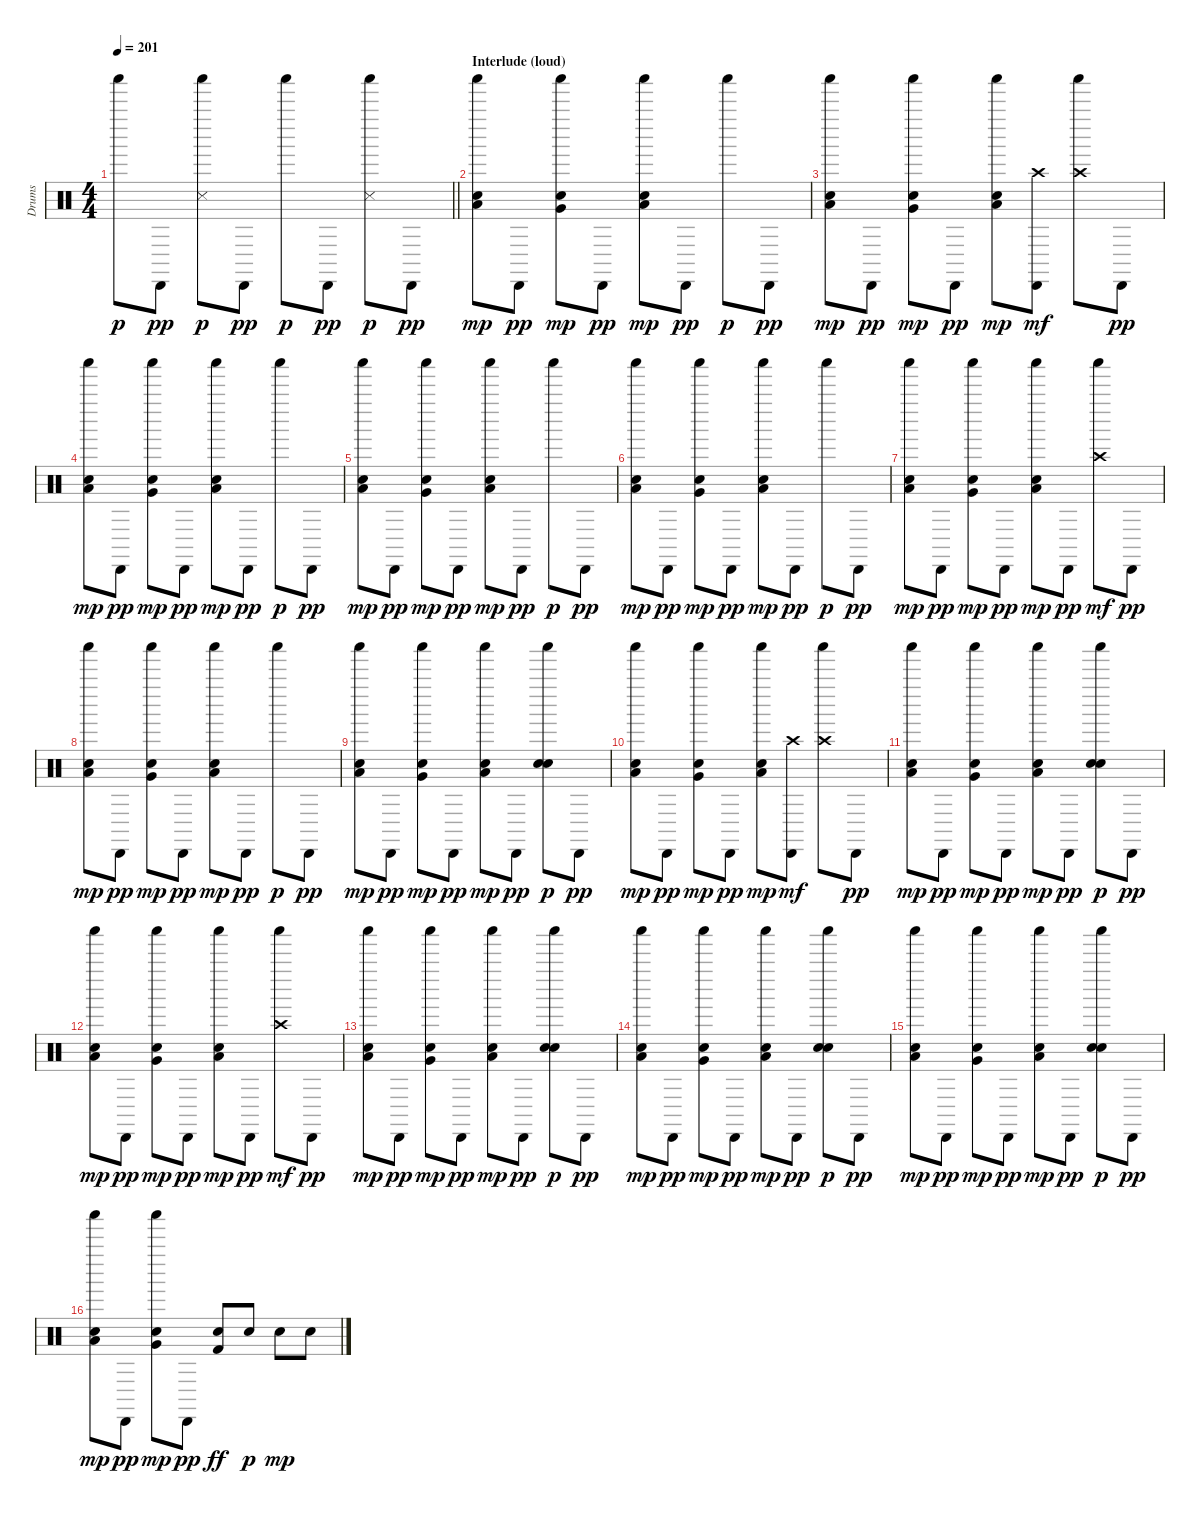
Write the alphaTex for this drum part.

\track ("Drums" "Drums") {instrument percussion}
\staff {score}
\articulation defaults
\ts (4 4)
\tempo 201
\clef neutral
\barLineRight lightlight
\ks c "Shaker (hit)".8{dy p} "Cabasa (hit)".8{dy pp}
("Shaker (hit)" "Snare (side stick) 3").8{dy p} "Cabasa (hit)".8{dy pp} "Shaker (hit)".8{dy p} "Cabasa (hit)".8{dy pp} ("Shaker (hit)" "Snare (side stick) 3").8{dy p} "Cabasa (hit)".8{dy pp} |
\section ("" "Interlude (loud)")
("Shaker (hit)" "Low Tom (hit)" "Snare (hit) 2").8{dy mp} "Cabasa (hit)".8{dy pp} ("Shaker (hit)" "Very Low Tom (hit)" "Snare (hit) 2").8{dy mp} "Cabasa (hit)".8{dy pp} ("Shaker (hit)" "Low Floor Tom (hit)" "Snare (hit) 2").8{dy mp} "Cabasa (hit)".8{dy pp} "Shaker (hit)".8{dy p} "Cabasa (hit)".8{dy pp} |
("Shaker (hit)" "Low Tom (hit)" "Snare (hit) 2").8{dy mp} "Cabasa (hit)".8{dy pp} ("Shaker (hit)" "Very Low Tom (hit)" "Snare (hit) 2").8{dy mp} "Cabasa (hit)".8{dy pp} ("Shaker (hit)" "Low Floor Tom (hit)" "Snare (hit) 2").8{dy mp} ("Cabasa (hit)" "Crash high (hit)").8{dy mf} ("Shaker (hit)" "Crash high (hit)").8 "Cabasa (hit)".8{dy pp} |
("Shaker (hit)" "Low Tom (hit)" "Snare (hit) 2").8{dy mp} "Cabasa (hit)".8{dy pp} ("Shaker (hit)" "Very Low Tom (hit)" "Snare (hit) 2").8{dy mp} "Cabasa (hit)".8{dy pp} ("Shaker (hit)" "Low Floor Tom (hit)" "Snare (hit) 2").8{dy mp} "Cabasa (hit)".8{dy pp} "Shaker (hit)".8{dy p} "Cabasa (hit)".8{dy pp} |
("Shaker (hit)" "Low Tom (hit)" "Snare (hit) 2").8{dy mp} "Cabasa (hit)".8{dy pp} ("Shaker (hit)" "Very Low Tom (hit)" "Snare (hit) 2").8{dy mp} "Cabasa (hit)".8{dy pp} ("Shaker (hit)" "Low Floor Tom (hit)" "Snare (hit) 2").8{dy mp} "Cabasa (hit)".8{dy pp} "Shaker (hit)".8{dy p} "Cabasa (hit)".8{dy pp} |
("Shaker (hit)" "Low Tom (hit)" "Snare (hit) 2").8{dy mp} "Cabasa (hit)".8{dy pp} ("Shaker (hit)" "Very Low Tom (hit)" "Snare (hit) 2").8{dy mp} "Cabasa (hit)".8{dy pp} ("Shaker (hit)" "Low Floor Tom (hit)" "Snare (hit) 2").8{dy mp} "Cabasa (hit)".8{dy pp} "Shaker (hit)".8{dy p} "Cabasa (hit)".8{dy pp} |
("Shaker (hit)" "Low Tom (hit)" "Snare (hit) 2").8{dy mp} "Cabasa (hit)".8{dy pp} ("Shaker (hit)" "Very Low Tom (hit)" "Snare (hit) 2").8{dy mp} "Cabasa (hit)".8{dy pp} ("Shaker (hit)" "Low Floor Tom (hit)" "Snare (hit) 2").8{dy mp} "Cabasa (hit)".8{dy pp} ("Shaker (hit)" "Crash high (hit)").8{dy mf} "Cabasa (hit)".8{dy pp} |
("Shaker (hit)" "Low Tom (hit)" "Snare (hit) 2").8{dy mp} "Cabasa (hit)".8{dy pp} ("Shaker (hit)" "Very Low Tom (hit)" "Snare (hit) 2").8{dy mp} "Cabasa (hit)".8{dy pp} ("Shaker (hit)" "Low Floor Tom (hit)" "Snare (hit) 2").8{dy mp} "Cabasa (hit)".8{dy pp} "Shaker (hit)".8{dy p} "Cabasa (hit)".8{dy pp} |
("Shaker (hit)" "Low Tom (hit)" "Snare (hit) 2").8{dy mp} "Cabasa (hit)".8{dy pp} ("Shaker (hit)" "Very Low Tom (hit)" "Snare (hit) 2").8{dy mp} "Cabasa (hit)".8{dy pp} ("Shaker (hit)" "Low Floor Tom (hit)" "Snare (hit) 2").8{dy mp} "Cabasa (hit)".8{dy pp} ("Shaker (hit)" "Snare (hit) 2" "Snare (hit) 2").8{dy p} "Cabasa (hit)".8{dy pp} |
("Shaker (hit)" "Low Tom (hit)" "Snare (hit) 2").8{dy mp} "Cabasa (hit)".8{dy pp} ("Shaker (hit)" "Very Low Tom (hit)" "Snare (hit) 2").8{dy mp} "Cabasa (hit)".8{dy pp} ("Shaker (hit)" "Low Floor Tom (hit)" "Snare (hit) 2").8{dy mp} ("Cabasa (hit)" "Crash high (hit)").8{dy mf} ("Shaker (hit)" "Crash high (hit)").8 "Cabasa (hit)".8{dy pp} |
("Shaker (hit)" "Low Tom (hit)" "Snare (hit) 2").8{dy mp} "Cabasa (hit)".8{dy pp} ("Shaker (hit)" "Very Low Tom (hit)" "Snare (hit) 2").8{dy mp} "Cabasa (hit)".8{dy pp} ("Shaker (hit)" "Low Floor Tom (hit)" "Snare (hit) 2").8{dy mp} "Cabasa (hit)".8{dy pp} ("Shaker (hit)" "Snare (hit) 2" "Snare (hit) 2").8{dy p} "Cabasa (hit)".8{dy pp} |
("Shaker (hit)" "Low Tom (hit)" "Snare (hit) 2").8{dy mp} "Cabasa (hit)".8{dy pp} ("Shaker (hit)" "Very Low Tom (hit)" "Snare (hit) 2").8{dy mp} "Cabasa (hit)".8{dy pp} ("Shaker (hit)" "Low Floor Tom (hit)" "Snare (hit) 2").8{dy mp} "Cabasa (hit)".8{dy pp} ("Shaker (hit)" "Crash high (hit)").8{dy mf} "Cabasa (hit)".8{dy pp} |
("Shaker (hit)" "Low Tom (hit)" "Snare (hit) 2").8{dy mp} "Cabasa (hit)".8{dy pp} ("Shaker (hit)" "Very Low Tom (hit)" "Snare (hit) 2").8{dy mp} "Cabasa (hit)".8{dy pp} ("Shaker (hit)" "Low Floor Tom (hit)" "Snare (hit) 2").8{dy mp} "Cabasa (hit)".8{dy pp} ("Shaker (hit)" "Snare (hit) 2" "Snare (hit) 2").8{dy p} "Cabasa (hit)".8{dy pp} |
("Shaker (hit)" "Low Tom (hit)" "Snare (hit) 2").8{dy mp} "Cabasa (hit)".8{dy pp} ("Shaker (hit)" "Very Low Tom (hit)" "Snare (hit) 2").8{dy mp} "Cabasa (hit)".8{dy pp} ("Shaker (hit)" "Low Floor Tom (hit)" "Snare (hit) 2").8{dy mp} "Cabasa (hit)".8{dy pp} ("Shaker (hit)" "Snare (hit) 2" "Snare (hit) 2").8{dy p} "Cabasa (hit)".8{dy pp} |
("Shaker (hit)" "Low Tom (hit)" "Snare (hit) 2").8{dy mp} "Cabasa (hit)".8{dy pp} ("Shaker (hit)" "Very Low Tom (hit)" "Snare (hit) 2").8{dy mp} "Cabasa (hit)".8{dy pp} ("Shaker (hit)" "Low Floor Tom (hit)" "Snare (hit) 2").8{dy mp} "Cabasa (hit)".8{dy pp} ("Shaker (hit)" "Snare (hit) 2" "Snare (hit) 2").8{dy p} "Cabasa (hit)".8{dy pp} |
("Shaker (hit)" "Low Tom (hit)" "Snare (hit) 2").8{dy mp} "Cabasa (hit)".8{dy pp} ("Shaker (hit)" "Very Low Tom (hit)" "Snare (hit) 2").8{dy mp} "Cabasa (hit)".8{dy pp} ("Snare (hit) 2" "Kick (hit) 2").8{dy ff} "Snare (hit) 2".8{dy p} "Snare (hit) 2".8{dy mp} "Snare (hit) 2".8
